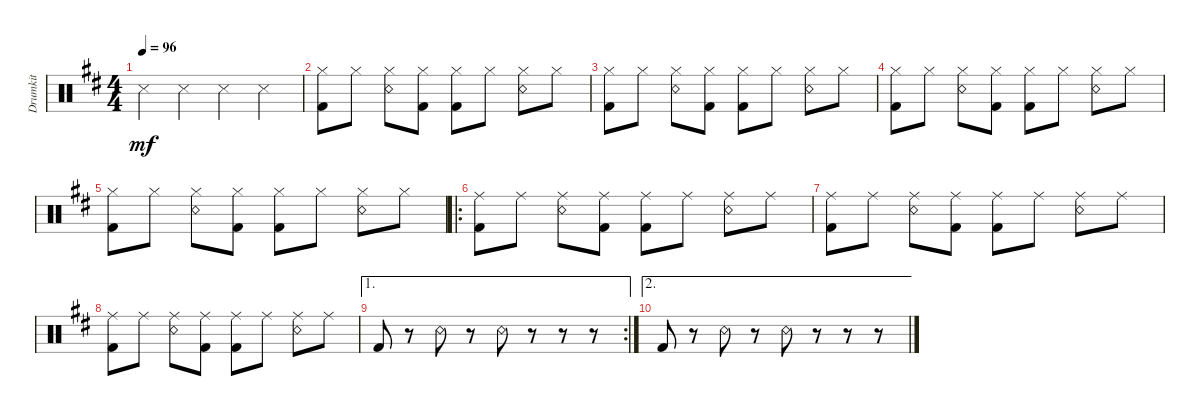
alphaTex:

\track ("Drumkit" "Drumkit") {instrument percussion}
\staff {score}
\articulation defaults
\ts (4 4)
\tempo 96
\clef neutral
\ks d "Snare (side stick) 3".4{dy mf} "Snare (side stick) 3".4 "Snare (side stick) 3".4 "Snare (side stick) 3".4
|
("Kick (hit) 2" "Hi-Hat (closed)").8 "Hi-Hat (closed)".8 ("Snare (rim shot)" "Hi-Hat (closed)").8 ("Kick (hit) 2" "Hi-Hat (closed)").8 ("Kick (hit) 2" "Hi-Hat (closed)").8 "Hi-Hat (closed)".8 ("Snare (rim shot)" "Hi-Hat (closed)").8 "Hi-Hat (closed)".8 |
("Kick (hit) 2" "Hi-Hat (closed)").8 "Hi-Hat (closed)".8 ("Snare (rim shot)" "Hi-Hat (closed)").8 ("Kick (hit) 2" "Hi-Hat (closed)").8 ("Kick (hit) 2" "Hi-Hat (closed)").8 "Hi-Hat (closed)".8 ("Snare (rim shot)" "Hi-Hat (closed)").8 "Hi-Hat (closed)".8 |
("Kick (hit) 2" "Hi-Hat (closed)").8 "Hi-Hat (closed)".8 ("Snare (rim shot)" "Hi-Hat (closed)").8 ("Kick (hit) 2" "Hi-Hat (closed)").8 ("Kick (hit) 2" "Hi-Hat (closed)").8 "Hi-Hat (closed)".8 ("Snare (rim shot)" "Hi-Hat (closed)").8 "Hi-Hat (closed)".8 |
("Kick (hit) 2" "Hi-Hat (closed)").8 "Hi-Hat (closed)".8 ("Snare (rim shot)" "Hi-Hat (closed)").8 ("Kick (hit) 2" "Hi-Hat (closed)").8 ("Kick (hit) 2" "Hi-Hat (closed)").8 "Hi-Hat (closed)".8 ("Snare (rim shot)" "Hi-Hat (closed)").8 "Hi-Hat (closed)".8 |
\ro
("Kick (hit) 2" "Ride (middle)").8 "Ride (middle)".8 ("Snare (rim shot)" "Ride (middle)").8 ("Kick (hit) 2" "Ride (middle)").8 ("Kick (hit) 2" "Ride (middle)").8 "Ride (middle)".8 ("Snare (rim shot)" "Ride (middle)").8 "Ride (middle)".8 |
("Kick (hit) 2" "Ride (middle)").8 "Ride (middle)".8 ("Snare (rim shot)" "Ride (middle)").8 ("Kick (hit) 2" "Ride (middle)").8 ("Kick (hit) 2" "Ride (middle)").8 "Ride (middle)".8 ("Snare (rim shot)" "Ride (middle)").8 "Ride (middle)".8 |
("Kick (hit) 2" "Ride (middle)").8 "Ride (middle)".8 ("Snare (rim shot)" "Ride (middle)").8 ("Kick (hit) 2" "Ride (middle)").8 ("Kick (hit) 2" "Ride (middle)").8 "Ride (middle)".8 ("Snare (rim shot)" "Ride (middle)").8 "Ride (middle)".8 |
\ae 1
\rc 2 "Kick (hit) 2".8
r.8 "Snare (rim shot)".8 r.8 "Snare (rim shot)".8 r.8 r.8 r.8 |
\ae 2 "Kick (hit) 2".8
r.8 "Snare (rim shot)".8 r.8 "Snare (rim shot)".8 r.8 r.8 r.8
